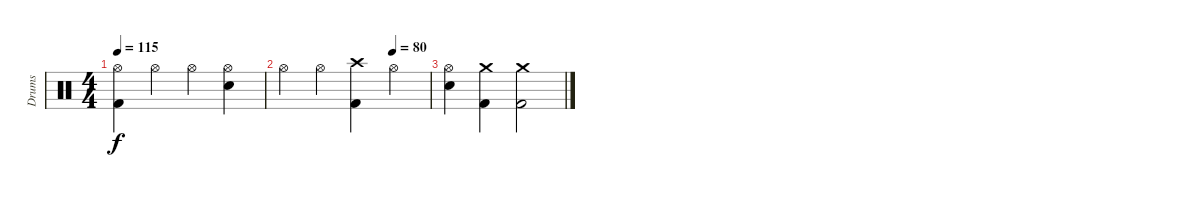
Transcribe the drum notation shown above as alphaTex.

\track ("Drums" "Drums") {instrument percussion}
\staff {score}
\articulation defaults
\ts (4 4)
\tempo 115
\clef neutral
\ks c
("Hi-Hat (open)" "Kick (hit) 2").4{dy f} "Hi-Hat (open)".4 "Hi-Hat (open)".4 ("Hi-Hat (open)" "Electric Snare (hit)").4 |
\tempo (80 0.75)
"Hi-Hat (open)".4 "Hi-Hat (open)".4 ("Crash high (hit)" "Kick (hit) 2").4 "Hi-Hat (open)".4 |
("Hi-Hat (open)" "Electric Snare (hit)").4 ("Crash medium (hit)" "Kick (hit) 2").4 ("Crash medium (hit)" "Kick (hit) 2").2
